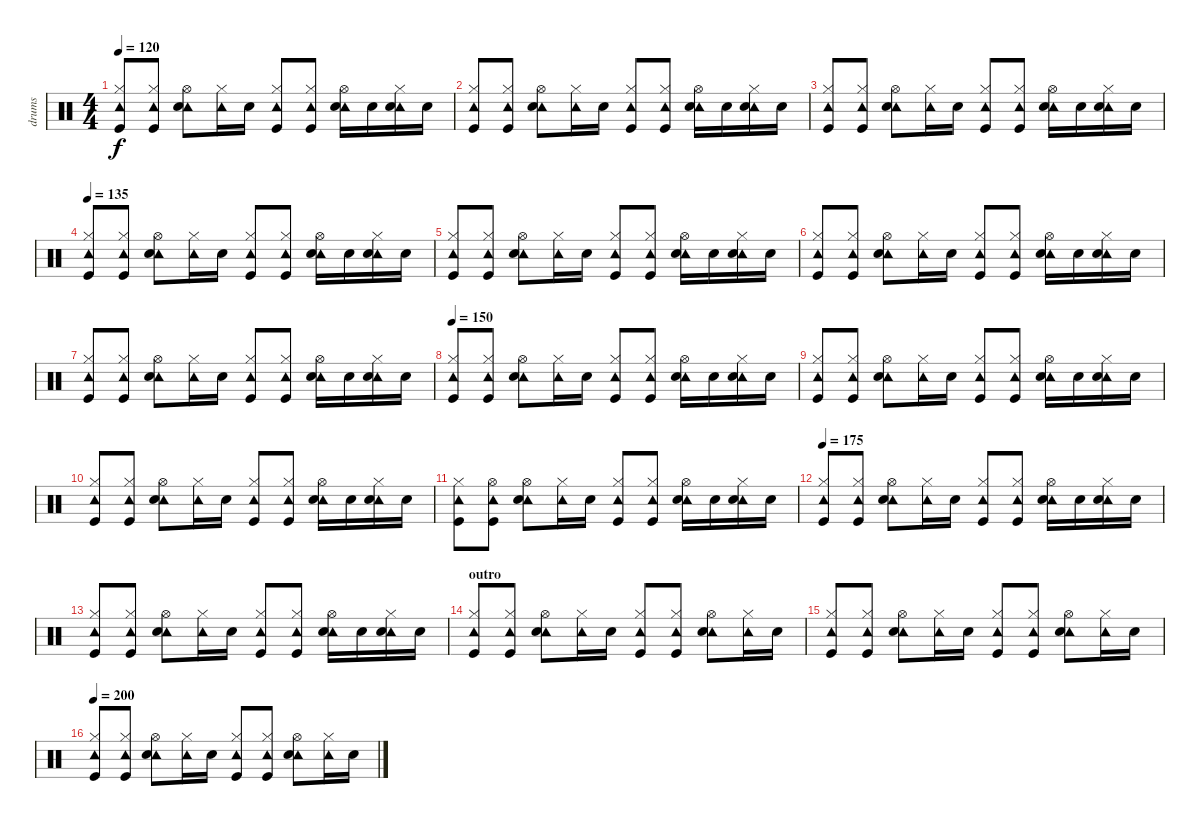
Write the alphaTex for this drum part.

\track ("drums" "drums") {instrument percussion}
\staff {score}
\articulation defaults
\ts (4 4)
\tempo 120
\clef neutral
\ks c
("Tambourine (hit)" "Hi-Hat (closed)" "Kick (hit)").8{dy f} ("Tambourine (hit)" "Hi-Hat (closed)" "Kick (hit)").8 ("Tambourine (hit)" "Hi-Hat (open)" "Electric Snare (hit)").8 ("Tambourine (hit)" "Hi-Hat (closed)").16 "Electric Snare (hit)".16 ("Tambourine (hit)" "Hi-Hat (closed)" "Kick (hit)").8 ("Tambourine (hit)" "Hi-Hat (closed)" "Kick (hit)").8 ("Tambourine (hit)" "Hi-Hat (open)" "Electric Snare (hit)").16 "Electric Snare (hit)".16 ("Tambourine (hit)" "Hi-Hat (closed)" "Electric Snare (hit)").16 "Electric Snare (hit)".16 |
("Tambourine (hit)" "Hi-Hat (closed)" "Kick (hit)").8 ("Tambourine (hit)" "Hi-Hat (closed)" "Kick (hit)").8 ("Tambourine (hit)" "Hi-Hat (open)" "Electric Snare (hit)").8 ("Tambourine (hit)" "Hi-Hat (closed)").16 "Electric Snare (hit)".16 ("Tambourine (hit)" "Hi-Hat (closed)" "Kick (hit)").8 ("Tambourine (hit)" "Hi-Hat (closed)" "Kick (hit)").8 ("Tambourine (hit)" "Hi-Hat (open)" "Electric Snare (hit)").16 "Electric Snare (hit)".16 ("Tambourine (hit)" "Hi-Hat (closed)" "Electric Snare (hit)").16 "Electric Snare (hit)".16 |
("Tambourine (hit)" "Hi-Hat (closed)" "Kick (hit)").8 ("Tambourine (hit)" "Hi-Hat (closed)" "Kick (hit)").8 ("Tambourine (hit)" "Hi-Hat (open)" "Electric Snare (hit)").8 ("Tambourine (hit)" "Hi-Hat (closed)").16 "Electric Snare (hit)".16 ("Tambourine (hit)" "Hi-Hat (closed)" "Kick (hit)").8 ("Tambourine (hit)" "Hi-Hat (closed)" "Kick (hit)").8 ("Tambourine (hit)" "Hi-Hat (open)" "Electric Snare (hit)").16 "Electric Snare (hit)".16 ("Tambourine (hit)" "Hi-Hat (closed)" "Electric Snare (hit)").16 "Electric Snare (hit)".16 |
\tempo 135
("Tambourine (hit)" "Hi-Hat (closed)" "Kick (hit)").8 ("Tambourine (hit)" "Hi-Hat (closed)" "Kick (hit)").8 ("Tambourine (hit)" "Hi-Hat (open)" "Electric Snare (hit)").8 ("Tambourine (hit)" "Hi-Hat (closed)").16 "Electric Snare (hit)".16 ("Tambourine (hit)" "Hi-Hat (closed)" "Kick (hit)").8 ("Tambourine (hit)" "Hi-Hat (closed)" "Kick (hit)").8 ("Tambourine (hit)" "Hi-Hat (open)" "Electric Snare (hit)").16 "Electric Snare (hit)".16 ("Tambourine (hit)" "Hi-Hat (closed)" "Electric Snare (hit)").16 "Electric Snare (hit)".16 |
("Tambourine (hit)" "Hi-Hat (closed)" "Kick (hit)").8 ("Tambourine (hit)" "Hi-Hat (closed)" "Kick (hit)").8 ("Tambourine (hit)" "Hi-Hat (open)" "Electric Snare (hit)").8 ("Tambourine (hit)" "Hi-Hat (closed)").16 "Electric Snare (hit)".16 ("Tambourine (hit)" "Hi-Hat (closed)" "Kick (hit)").8 ("Tambourine (hit)" "Hi-Hat (closed)" "Kick (hit)").8 ("Tambourine (hit)" "Hi-Hat (open)" "Electric Snare (hit)").16 "Electric Snare (hit)".16 ("Tambourine (hit)" "Hi-Hat (closed)" "Electric Snare (hit)").16 "Electric Snare (hit)".16 |
("Tambourine (hit)" "Hi-Hat (closed)" "Kick (hit)").8 ("Tambourine (hit)" "Hi-Hat (closed)" "Kick (hit)").8 ("Tambourine (hit)" "Hi-Hat (open)" "Electric Snare (hit)").8 ("Tambourine (hit)" "Hi-Hat (closed)").16 "Electric Snare (hit)".16 ("Tambourine (hit)" "Hi-Hat (closed)" "Kick (hit)").8 ("Tambourine (hit)" "Hi-Hat (closed)" "Kick (hit)").8 ("Tambourine (hit)" "Hi-Hat (open)" "Electric Snare (hit)").16 "Electric Snare (hit)".16 ("Tambourine (hit)" "Hi-Hat (closed)" "Electric Snare (hit)").16 "Electric Snare (hit)".16 |
("Tambourine (hit)" "Hi-Hat (closed)" "Kick (hit)").8 ("Tambourine (hit)" "Hi-Hat (closed)" "Kick (hit)").8 ("Tambourine (hit)" "Hi-Hat (open)" "Electric Snare (hit)").8 ("Tambourine (hit)" "Hi-Hat (closed)").16 "Electric Snare (hit)".16 ("Tambourine (hit)" "Hi-Hat (closed)" "Kick (hit)").8 ("Tambourine (hit)" "Hi-Hat (closed)" "Kick (hit)").8 ("Tambourine (hit)" "Hi-Hat (open)" "Electric Snare (hit)").16 "Electric Snare (hit)".16 ("Tambourine (hit)" "Hi-Hat (closed)" "Electric Snare (hit)").16 "Electric Snare (hit)".16 |
\tempo 150
("Tambourine (hit)" "Hi-Hat (closed)" "Kick (hit)").8 ("Tambourine (hit)" "Hi-Hat (closed)" "Kick (hit)").8 ("Tambourine (hit)" "Hi-Hat (open)" "Electric Snare (hit)").8 ("Tambourine (hit)" "Hi-Hat (closed)").16 "Electric Snare (hit)".16 ("Tambourine (hit)" "Hi-Hat (closed)" "Kick (hit)").8 ("Tambourine (hit)" "Hi-Hat (closed)" "Kick (hit)").8 ("Tambourine (hit)" "Hi-Hat (open)" "Electric Snare (hit)").16 "Electric Snare (hit)".16 ("Tambourine (hit)" "Hi-Hat (closed)" "Electric Snare (hit)").16 "Electric Snare (hit)".16 |
("Tambourine (hit)" "Hi-Hat (closed)" "Kick (hit)").8 ("Tambourine (hit)" "Hi-Hat (closed)" "Kick (hit)").8 ("Tambourine (hit)" "Hi-Hat (open)" "Electric Snare (hit)").8 ("Tambourine (hit)" "Hi-Hat (closed)").16 "Electric Snare (hit)".16 ("Tambourine (hit)" "Hi-Hat (closed)" "Kick (hit)").8 ("Tambourine (hit)" "Hi-Hat (closed)" "Kick (hit)").8 ("Tambourine (hit)" "Hi-Hat (open)" "Electric Snare (hit)").16 "Electric Snare (hit)".16 ("Tambourine (hit)" "Hi-Hat (closed)" "Electric Snare (hit)").16 "Electric Snare (hit)".16 |
("Tambourine (hit)" "Hi-Hat (closed)" "Kick (hit)").8 ("Tambourine (hit)" "Hi-Hat (closed)" "Kick (hit)").8 ("Tambourine (hit)" "Hi-Hat (open)" "Electric Snare (hit)").8 ("Tambourine (hit)" "Hi-Hat (closed)").16 "Electric Snare (hit)".16 ("Tambourine (hit)" "Hi-Hat (closed)" "Kick (hit)").8 ("Tambourine (hit)" "Hi-Hat (closed)" "Kick (hit)").8 ("Tambourine (hit)" "Hi-Hat (open)" "Electric Snare (hit)").16 "Electric Snare (hit)".16 ("Tambourine (hit)" "Hi-Hat (closed)" "Electric Snare (hit)").16 "Electric Snare (hit)".16 |
("Tambourine (hit)" "Hi-Hat (closed)" "Kick (hit)").8 ("Tambourine (hit)" "Hi-Hat (open)" "Kick (hit)").8 ("Tambourine (hit)" "Hi-Hat (open)" "Electric Snare (hit)").8 ("Tambourine (hit)" "Hi-Hat (closed)").16 "Electric Snare (hit)".16 ("Tambourine (hit)" "Hi-Hat (closed)" "Kick (hit)").8 ("Tambourine (hit)" "Hi-Hat (closed)" "Kick (hit)").8 ("Tambourine (hit)" "Hi-Hat (open)" "Electric Snare (hit)").16 "Electric Snare (hit)".16 ("Tambourine (hit)" "Hi-Hat (closed)" "Electric Snare (hit)").16 "Electric Snare (hit)".16 |
\tempo 175
("Tambourine (hit)" "Hi-Hat (closed)" "Kick (hit)").8 ("Tambourine (hit)" "Hi-Hat (closed)" "Kick (hit)").8 ("Tambourine (hit)" "Hi-Hat (open)" "Electric Snare (hit)").8 ("Tambourine (hit)" "Hi-Hat (closed)").16 "Electric Snare (hit)".16 ("Tambourine (hit)" "Hi-Hat (closed)" "Kick (hit)").8 ("Tambourine (hit)" "Hi-Hat (closed)" "Kick (hit)").8 ("Tambourine (hit)" "Hi-Hat (open)" "Electric Snare (hit)").16 "Electric Snare (hit)".16 ("Tambourine (hit)" "Hi-Hat (closed)" "Electric Snare (hit)").16 "Electric Snare (hit)".16 |
("Tambourine (hit)" "Hi-Hat (closed)" "Kick (hit)").8 ("Tambourine (hit)" "Hi-Hat (closed)" "Kick (hit)").8 ("Tambourine (hit)" "Hi-Hat (open)" "Electric Snare (hit)").8 ("Tambourine (hit)" "Hi-Hat (closed)").16 "Electric Snare (hit)".16 ("Tambourine (hit)" "Hi-Hat (closed)" "Kick (hit)").8 ("Tambourine (hit)" "Hi-Hat (closed)" "Kick (hit)").8 ("Tambourine (hit)" "Hi-Hat (open)" "Electric Snare (hit)").16 "Electric Snare (hit)".16 ("Tambourine (hit)" "Hi-Hat (closed)" "Electric Snare (hit)").16 "Electric Snare (hit)".16 |
\section ("" "outro")
("Tambourine (hit)" "Hi-Hat (closed)" "Kick (hit)").8 ("Tambourine (hit)" "Hi-Hat (closed)" "Kick (hit)").8 ("Tambourine (hit)" "Hi-Hat (open)" "Electric Snare (hit)").8 ("Tambourine (hit)" "Hi-Hat (closed)").16 "Electric Snare (hit)".16 ("Tambourine (hit)" "Hi-Hat (closed)" "Kick (hit)").8 ("Tambourine (hit)" "Hi-Hat (closed)" "Kick (hit)").8 ("Tambourine (hit)" "Hi-Hat (open)" "Electric Snare (hit)").8 ("Tambourine (hit)" "Hi-Hat (closed)").16 "Electric Snare (hit)".16 |
("Tambourine (hit)" "Hi-Hat (closed)" "Kick (hit)").8 ("Tambourine (hit)" "Hi-Hat (closed)" "Kick (hit)").8 ("Tambourine (hit)" "Hi-Hat (open)" "Electric Snare (hit)").8 ("Tambourine (hit)" "Hi-Hat (closed)").16 "Electric Snare (hit)".16 ("Tambourine (hit)" "Hi-Hat (closed)" "Kick (hit)").8 ("Tambourine (hit)" "Hi-Hat (closed)" "Kick (hit)").8 ("Tambourine (hit)" "Hi-Hat (open)" "Electric Snare (hit)").8 ("Tambourine (hit)" "Hi-Hat (closed)").16 "Electric Snare (hit)".16 |
\tempo 200
("Tambourine (hit)" "Hi-Hat (closed)" "Kick (hit)").8 ("Tambourine (hit)" "Hi-Hat (closed)" "Kick (hit)").8 ("Tambourine (hit)" "Hi-Hat (open)" "Electric Snare (hit)").8 ("Tambourine (hit)" "Hi-Hat (closed)").16 "Electric Snare (hit)".16 ("Tambourine (hit)" "Hi-Hat (closed)" "Kick (hit)").8 ("Tambourine (hit)" "Hi-Hat (closed)" "Kick (hit)").8 ("Tambourine (hit)" "Hi-Hat (open)" "Electric Snare (hit)").8 ("Tambourine (hit)" "Hi-Hat (closed)").16 "Electric Snare (hit)".16
